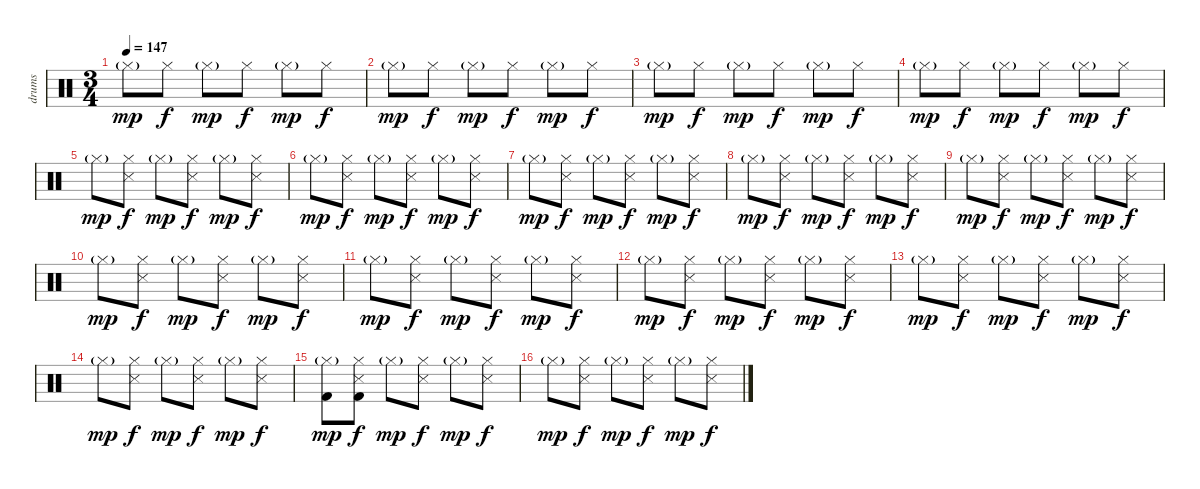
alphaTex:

\track ("drums" "drums") {instrument percussion}
\staff {score}
\articulation defaults
\ts (3 4)
\tempo 147
\clef neutral
\ks c "Hi-Hat (closed)"{g}.8{dy mp} "Hi-Hat (closed)".8{dy f} "Hi-Hat (closed)"{g}.8{dy mp} "Hi-Hat (closed)".8{dy f} "Hi-Hat (closed)"{g}.8{dy mp} "Hi-Hat (closed)".8{dy f}
|
"Hi-Hat (closed)"{g}.8{dy mp} "Hi-Hat (closed)".8{dy f} "Hi-Hat (closed)"{g}.8{dy mp} "Hi-Hat (closed)".8{dy f} "Hi-Hat (closed)"{g}.8{dy mp} "Hi-Hat (closed)".8{dy f} |
"Hi-Hat (closed)"{g}.8{dy mp} "Hi-Hat (closed)".8{dy f} "Hi-Hat (closed)"{g}.8{dy mp} "Hi-Hat (closed)".8{dy f} "Hi-Hat (closed)"{g}.8{dy mp} "Hi-Hat (closed)".8{dy f} |
"Hi-Hat (closed)"{g}.8{dy mp} "Hi-Hat (closed)".8{dy f} "Hi-Hat (closed)"{g}.8{dy mp} "Hi-Hat (closed)".8{dy f} "Hi-Hat (closed)"{g}.8{dy mp} "Hi-Hat (closed)".8{dy f} |
"Hi-Hat (closed)"{g}.8{dy mp} ("Hi-Hat (closed)" "Snare (side stick) 3").8{dy f} "Hi-Hat (closed)"{g}.8{dy mp} ("Hi-Hat (closed)" "Snare (side stick) 3").8{dy f} "Hi-Hat (closed)"{g}.8{dy mp} ("Hi-Hat (closed)" "Snare (side stick) 3").8{dy f} |
"Hi-Hat (closed)"{g}.8{dy mp} ("Hi-Hat (closed)" "Snare (side stick) 3").8{dy f} "Hi-Hat (closed)"{g}.8{dy mp} ("Hi-Hat (closed)" "Snare (side stick) 3").8{dy f} "Hi-Hat (closed)"{g}.8{dy mp} ("Hi-Hat (closed)" "Snare (side stick) 3").8{dy f} |
"Hi-Hat (closed)"{g}.8{dy mp} ("Hi-Hat (closed)" "Snare (side stick) 3").8{dy f} "Hi-Hat (closed)"{g}.8{dy mp} ("Hi-Hat (closed)" "Snare (side stick) 3").8{dy f} "Hi-Hat (closed)"{g}.8{dy mp} ("Hi-Hat (closed)" "Snare (side stick) 3").8{dy f} |
"Hi-Hat (closed)"{g}.8{dy mp} ("Hi-Hat (closed)" "Snare (side stick) 3").8{dy f} "Hi-Hat (closed)"{g}.8{dy mp} ("Hi-Hat (closed)" "Snare (side stick) 3").8{dy f} "Hi-Hat (closed)"{g}.8{dy mp} ("Hi-Hat (closed)" "Snare (side stick) 3").8{dy f} |
"Hi-Hat (closed)"{g}.8{dy mp} ("Hi-Hat (closed)" "Snare (side stick) 3").8{dy f} "Hi-Hat (closed)"{g}.8{dy mp} ("Hi-Hat (closed)" "Snare (side stick) 3").8{dy f} "Hi-Hat (closed)"{g}.8{dy mp} ("Hi-Hat (closed)" "Snare (side stick) 3").8{dy f} |
"Hi-Hat (closed)"{g}.8{dy mp} ("Hi-Hat (closed)" "Snare (side stick) 3").8{dy f} "Hi-Hat (closed)"{g}.8{dy mp} ("Hi-Hat (closed)" "Snare (side stick) 3").8{dy f} "Hi-Hat (closed)"{g}.8{dy mp} ("Hi-Hat (closed)" "Snare (side stick) 3").8{dy f} |
"Hi-Hat (closed)"{g}.8{dy mp} ("Hi-Hat (closed)" "Snare (side stick) 3").8{dy f} "Hi-Hat (closed)"{g}.8{dy mp} ("Hi-Hat (closed)" "Snare (side stick) 3").8{dy f} "Hi-Hat (closed)"{g}.8{dy mp} ("Hi-Hat (closed)" "Snare (side stick) 3").8{dy f} |
"Hi-Hat (closed)"{g}.8{dy mp} ("Hi-Hat (closed)" "Snare (side stick) 3").8{dy f} "Hi-Hat (closed)"{g}.8{dy mp} ("Hi-Hat (closed)" "Snare (side stick) 3").8{dy f} "Hi-Hat (closed)"{g}.8{dy mp} ("Hi-Hat (closed)" "Snare (side stick) 3").8{dy f} |
"Hi-Hat (closed)"{g}.8{dy mp} ("Hi-Hat (closed)" "Snare (side stick) 3").8{dy f} "Hi-Hat (closed)"{g}.8{dy mp} ("Hi-Hat (closed)" "Snare (side stick) 3").8{dy f} "Hi-Hat (closed)"{g}.8{dy mp} ("Hi-Hat (closed)" "Snare (side stick) 3").8{dy f} |
"Hi-Hat (closed)"{g}.8{dy mp} ("Hi-Hat (closed)" "Snare (side stick) 3").8{dy f} "Hi-Hat (closed)"{g}.8{dy mp} ("Hi-Hat (closed)" "Snare (side stick) 3").8{dy f} "Hi-Hat (closed)"{g}.8{dy mp} ("Hi-Hat (closed)" "Snare (side stick) 3").8{dy f} |
("Hi-Hat (closed)"{g} "Kick (hit) 2").8{dy mp} ("Hi-Hat (closed)" "Snare (side stick) 3" "Kick (hit) 2").8{dy f} "Hi-Hat (closed)"{g}.8{dy mp} ("Hi-Hat (closed)" "Snare (side stick) 3").8{dy f} "Hi-Hat (closed)"{g}.8{dy mp} ("Hi-Hat (closed)" "Snare (side stick) 3").8{dy f} |
"Hi-Hat (closed)"{g}.8{dy mp} ("Hi-Hat (closed)" "Snare (side stick) 3").8{dy f} "Hi-Hat (closed)"{g}.8{dy mp} ("Hi-Hat (closed)" "Snare (side stick) 3").8{dy f} "Hi-Hat (closed)"{g}.8{dy mp} ("Hi-Hat (closed)" "Snare (side stick) 3").8{dy f}
